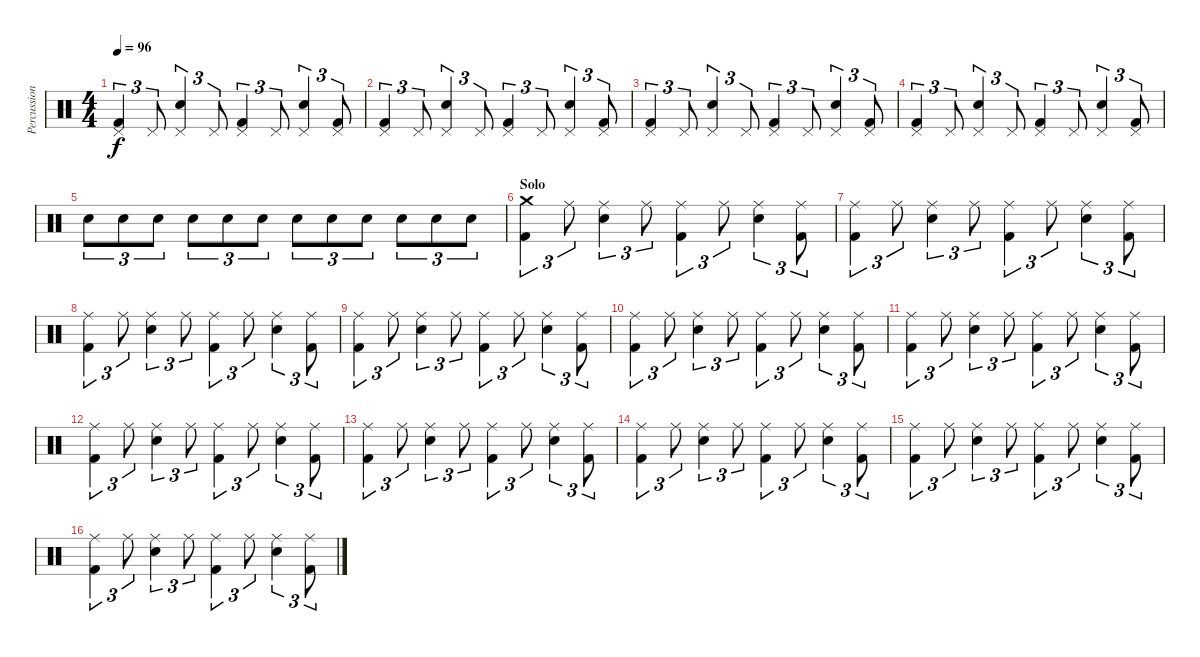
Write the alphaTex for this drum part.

\track ("Percussioni" "Percussion") {instrument percussion}
\staff {score}
\articulation defaults
\ts (4 4)
\tempo 96
\clef neutral
\ks c
("Kick (hit) 2" "Pedal Hi-Hat (hit)").4{tu (3 2) dy f} "Pedal Hi-Hat (hit)".8{tu (3 2)} ("Electric Snare (hit)" "Pedal Hi-Hat (hit)").4{tu (3 2)} "Pedal Hi-Hat (hit)".8{tu (3 2)} ("Kick (hit) 2" "Pedal Hi-Hat (hit)").4{tu (3 2)} "Pedal Hi-Hat (hit)".8{tu (3 2)} ("Electric Snare (hit)" "Pedal Hi-Hat (hit)").4{tu (3 2)} ("Kick (hit) 2" "Pedal Hi-Hat (hit)").8{tu (3 2)} |
("Kick (hit) 2" "Pedal Hi-Hat (hit)").4{tu (3 2)} "Pedal Hi-Hat (hit)".8{tu (3 2)} ("Electric Snare (hit)" "Pedal Hi-Hat (hit)").4{tu (3 2)} "Pedal Hi-Hat (hit)".8{tu (3 2)} ("Kick (hit) 2" "Pedal Hi-Hat (hit)").4{tu (3 2)} "Pedal Hi-Hat (hit)".8{tu (3 2)} ("Electric Snare (hit)" "Pedal Hi-Hat (hit)").4{tu (3 2)} ("Kick (hit) 2" "Pedal Hi-Hat (hit)").8{tu (3 2)} |
("Kick (hit) 2" "Pedal Hi-Hat (hit)").4{tu (3 2)} "Pedal Hi-Hat (hit)".8{tu (3 2)} ("Electric Snare (hit)" "Pedal Hi-Hat (hit)").4{tu (3 2)} "Pedal Hi-Hat (hit)".8{tu (3 2)} ("Kick (hit) 2" "Pedal Hi-Hat (hit)").4{tu (3 2)} "Pedal Hi-Hat (hit)".8{tu (3 2)} ("Electric Snare (hit)" "Pedal Hi-Hat (hit)").4{tu (3 2)} ("Kick (hit) 2" "Pedal Hi-Hat (hit)").8{tu (3 2)} |
("Kick (hit) 2" "Pedal Hi-Hat (hit)").4{tu (3 2)} "Pedal Hi-Hat (hit)".8{tu (3 2)} ("Electric Snare (hit)" "Pedal Hi-Hat (hit)").4{tu (3 2)} "Pedal Hi-Hat (hit)".8{tu (3 2)} ("Kick (hit) 2" "Pedal Hi-Hat (hit)").4{tu (3 2)} "Pedal Hi-Hat (hit)".8{tu (3 2)} ("Electric Snare (hit)" "Pedal Hi-Hat (hit)").4{tu (3 2)} ("Kick (hit) 2" "Pedal Hi-Hat (hit)").8{tu (3 2)} |
"Electric Snare (hit)".8{tu (3 2)} "Electric Snare (hit)".8{tu (3 2)} "Electric Snare (hit)".8{tu (3 2)} "Electric Snare (hit)".8{tu (3 2)} "Electric Snare (hit)".8{tu (3 2)} "Electric Snare (hit)".8{tu (3 2)} "Electric Snare (hit)".8{tu (3 2)} "Electric Snare (hit)".8{tu (3 2)} "Electric Snare (hit)".8{tu (3 2)} "Electric Snare (hit)".8{tu (3 2)} "Electric Snare (hit)".8{tu (3 2)} "Electric Snare (hit)".8{tu (3 2)} |
\section ("" "Solo")
("Kick (hit) 2" "Crash medium (hit)").4{tu (3 2)} "Ride (middle)".8{tu (3 2)} ("Electric Snare (hit)" "Ride (middle)").4{tu (3 2)} "Ride (middle)".8{tu (3 2)} ("Kick (hit) 2" "Ride (middle)").4{tu (3 2)} "Ride (middle)".8{tu (3 2)} ("Electric Snare (hit)" "Ride (middle)").4{tu (3 2)} ("Kick (hit) 2" "Ride (middle)").8{tu (3 2)} |
("Kick (hit) 2" "Ride (middle)").4{tu (3 2)} "Ride (middle)".8{tu (3 2)} ("Electric Snare (hit)" "Ride (middle)").4{tu (3 2)} "Ride (middle)".8{tu (3 2)} ("Kick (hit) 2" "Ride (middle)").4{tu (3 2)} "Ride (middle)".8{tu (3 2)} ("Electric Snare (hit)" "Ride (middle)").4{tu (3 2)} ("Kick (hit) 2" "Ride (middle)").8{tu (3 2)} |
("Kick (hit) 2" "Ride (middle)").4{tu (3 2)} "Ride (middle)".8{tu (3 2)} ("Electric Snare (hit)" "Ride (middle)").4{tu (3 2)} "Ride (middle)".8{tu (3 2)} ("Kick (hit) 2" "Ride (middle)").4{tu (3 2)} "Ride (middle)".8{tu (3 2)} ("Electric Snare (hit)" "Ride (middle)").4{tu (3 2)} ("Kick (hit) 2" "Ride (middle)").8{tu (3 2)} |
("Kick (hit) 2" "Ride (middle)").4{tu (3 2)} "Ride (middle)".8{tu (3 2)} ("Electric Snare (hit)" "Ride (middle)").4{tu (3 2)} "Ride (middle)".8{tu (3 2)} ("Kick (hit) 2" "Ride (middle)").4{tu (3 2)} "Ride (middle)".8{tu (3 2)} ("Electric Snare (hit)" "Ride (middle)").4{tu (3 2)} ("Kick (hit) 2" "Ride (middle)").8{tu (3 2)} |
("Kick (hit) 2" "Ride (middle)").4{tu (3 2)} "Ride (middle)".8{tu (3 2)} ("Electric Snare (hit)" "Ride (middle)").4{tu (3 2)} "Ride (middle)".8{tu (3 2)} ("Kick (hit) 2" "Ride (middle)").4{tu (3 2)} "Ride (middle)".8{tu (3 2)} ("Electric Snare (hit)" "Ride (middle)").4{tu (3 2)} ("Kick (hit) 2" "Ride (middle)").8{tu (3 2)} |
("Kick (hit) 2" "Ride (middle)").4{tu (3 2)} "Ride (middle)".8{tu (3 2)} ("Electric Snare (hit)" "Ride (middle)").4{tu (3 2)} "Ride (middle)".8{tu (3 2)} ("Kick (hit) 2" "Ride (middle)").4{tu (3 2)} "Ride (middle)".8{tu (3 2)} ("Electric Snare (hit)" "Ride (middle)").4{tu (3 2)} ("Kick (hit) 2" "Ride (middle)").8{tu (3 2)} |
("Kick (hit) 2" "Ride (middle)").4{tu (3 2)} "Ride (middle)".8{tu (3 2)} ("Electric Snare (hit)" "Ride (middle)").4{tu (3 2)} "Ride (middle)".8{tu (3 2)} ("Kick (hit) 2" "Ride (middle)").4{tu (3 2)} "Ride (middle)".8{tu (3 2)} ("Electric Snare (hit)" "Ride (middle)").4{tu (3 2)} ("Kick (hit) 2" "Ride (middle)").8{tu (3 2)} |
("Kick (hit) 2" "Ride (middle)").4{tu (3 2)} "Ride (middle)".8{tu (3 2)} ("Electric Snare (hit)" "Ride (middle)").4{tu (3 2)} "Ride (middle)".8{tu (3 2)} ("Kick (hit) 2" "Ride (middle)").4{tu (3 2)} "Ride (middle)".8{tu (3 2)} ("Electric Snare (hit)" "Ride (middle)").4{tu (3 2)} ("Kick (hit) 2" "Ride (middle)").8{tu (3 2)} |
("Kick (hit) 2" "Ride (middle)").4{tu (3 2)} "Ride (middle)".8{tu (3 2)} ("Electric Snare (hit)" "Ride (middle)").4{tu (3 2)} "Ride (middle)".8{tu (3 2)} ("Kick (hit) 2" "Ride (middle)").4{tu (3 2)} "Ride (middle)".8{tu (3 2)} ("Electric Snare (hit)" "Ride (middle)").4{tu (3 2)} ("Kick (hit) 2" "Ride (middle)").8{tu (3 2)} |
("Kick (hit) 2" "Ride (middle)").4{tu (3 2)} "Ride (middle)".8{tu (3 2)} ("Electric Snare (hit)" "Ride (middle)").4{tu (3 2)} "Ride (middle)".8{tu (3 2)} ("Kick (hit) 2" "Ride (middle)").4{tu (3 2)} "Ride (middle)".8{tu (3 2)} ("Electric Snare (hit)" "Ride (middle)").4{tu (3 2)} ("Kick (hit) 2" "Ride (middle)").8{tu (3 2)} |
("Kick (hit) 2" "Ride (middle)").4{tu (3 2)} "Ride (middle)".8{tu (3 2)} ("Electric Snare (hit)" "Ride (middle)").4{tu (3 2)} "Ride (middle)".8{tu (3 2)} ("Kick (hit) 2" "Ride (middle)").4{tu (3 2)} "Ride (middle)".8{tu (3 2)} ("Electric Snare (hit)" "Ride (middle)").4{tu (3 2)} ("Kick (hit) 2" "Ride (middle)").8{tu (3 2)}
